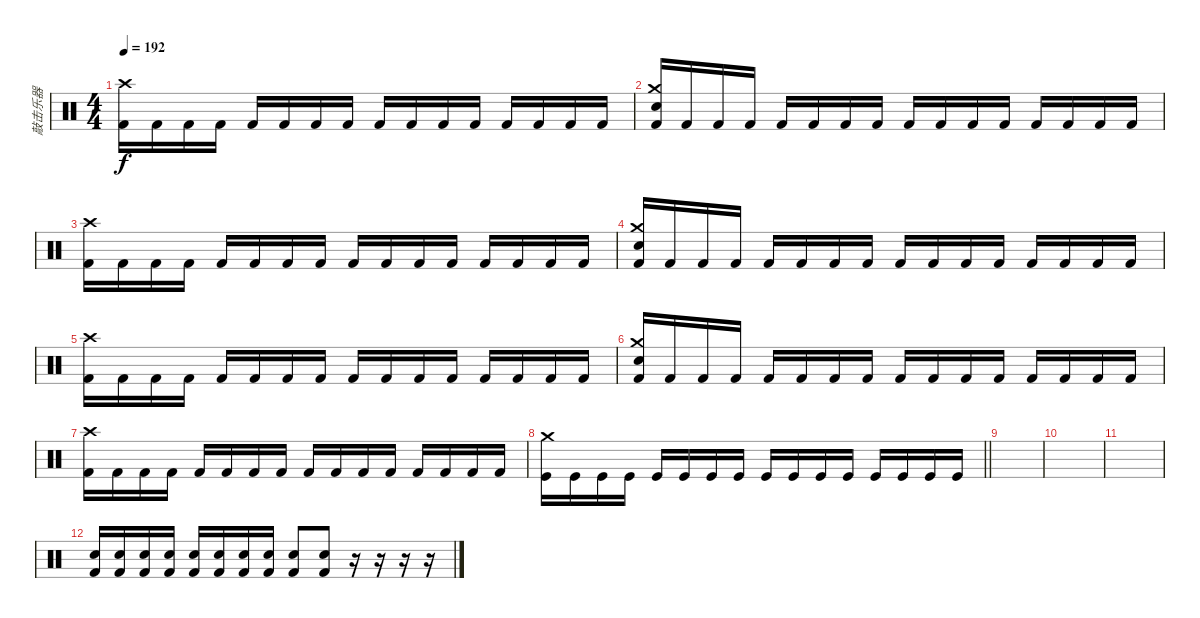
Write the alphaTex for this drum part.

\track ("敲击乐器" "敲击乐器") {instrument percussion}
\staff {score}
\articulation defaults
\ts (4 4)
\tempo 192
\clef neutral
\ks c
("Crash high (hit)" "Kick (hit) 2").16{dy f} "Kick (hit) 2".16 "Kick (hit) 2".16 "Kick (hit) 2".16 "Kick (hit) 2".16 "Kick (hit) 2".16 "Kick (hit) 2".16 "Kick (hit) 2".16 "Kick (hit) 2".16 "Kick (hit) 2".16 "Kick (hit) 2".16 "Kick (hit) 2".16 "Kick (hit) 2".16 "Kick (hit) 2".16 "Kick (hit) 2".16 "Kick (hit) 2".16 |
("Crash medium (hit)" "Electric Snare (hit)" "Kick (hit) 2").16 "Kick (hit) 2".16 "Kick (hit) 2".16 "Kick (hit) 2".16 "Kick (hit) 2".16 "Kick (hit) 2".16 "Kick (hit) 2".16 "Kick (hit) 2".16 "Kick (hit) 2".16 "Kick (hit) 2".16 "Kick (hit) 2".16 "Kick (hit) 2".16 "Kick (hit) 2".16 "Kick (hit) 2".16 "Kick (hit) 2".16 "Kick (hit) 2".16 |
("Crash high (hit)" "Kick (hit) 2").16 "Kick (hit) 2".16 "Kick (hit) 2".16 "Kick (hit) 2".16 "Kick (hit) 2".16 "Kick (hit) 2".16 "Kick (hit) 2".16 "Kick (hit) 2".16 "Kick (hit) 2".16 "Kick (hit) 2".16 "Kick (hit) 2".16 "Kick (hit) 2".16 "Kick (hit) 2".16 "Kick (hit) 2".16 "Kick (hit) 2".16 "Kick (hit) 2".16 |
("Crash medium (hit)" "Electric Snare (hit)" "Kick (hit) 2").16 "Kick (hit) 2".16 "Kick (hit) 2".16 "Kick (hit) 2".16 "Kick (hit) 2".16 "Kick (hit) 2".16 "Kick (hit) 2".16 "Kick (hit) 2".16 "Kick (hit) 2".16 "Kick (hit) 2".16 "Kick (hit) 2".16 "Kick (hit) 2".16 "Kick (hit) 2".16 "Kick (hit) 2".16 "Kick (hit) 2".16 "Kick (hit) 2".16 |
("Crash high (hit)" "Kick (hit) 2").16 "Kick (hit) 2".16 "Kick (hit) 2".16 "Kick (hit) 2".16 "Kick (hit) 2".16 "Kick (hit) 2".16 "Kick (hit) 2".16 "Kick (hit) 2".16 "Kick (hit) 2".16 "Kick (hit) 2".16 "Kick (hit) 2".16 "Kick (hit) 2".16 "Kick (hit) 2".16 "Kick (hit) 2".16 "Kick (hit) 2".16 "Kick (hit) 2".16 |
("Crash medium (hit)" "Electric Snare (hit)" "Kick (hit) 2").16 "Kick (hit) 2".16 "Kick (hit) 2".16 "Kick (hit) 2".16 "Kick (hit) 2".16 "Kick (hit) 2".16 "Kick (hit) 2".16 "Kick (hit) 2".16 "Kick (hit) 2".16 "Kick (hit) 2".16 "Kick (hit) 2".16 "Kick (hit) 2".16 "Kick (hit) 2".16 "Kick (hit) 2".16 "Kick (hit) 2".16 "Kick (hit) 2".16 |
("Crash high (hit)" "Kick (hit) 2").16 "Kick (hit) 2".16 "Kick (hit) 2".16 "Kick (hit) 2".16 "Kick (hit) 2".16 "Kick (hit) 2".16 "Kick (hit) 2".16 "Kick (hit) 2".16 "Kick (hit) 2".16 "Kick (hit) 2".16 "Kick (hit) 2".16 "Kick (hit) 2".16 "Kick (hit) 2".16 "Kick (hit) 2".16 "Kick (hit) 2".16 "Kick (hit) 2".16 |
\barLineRight lightlight
("Crash medium (hit)" "Kick (hit)").16 "Kick (hit)".16 "Kick (hit)".16 "Kick (hit)".16 "Kick (hit)".16 "Kick (hit)".16 "Kick (hit)".16 "Kick (hit)".16 "Kick (hit)".16 "Kick (hit)".16 "Kick (hit)".16 "Kick (hit)".16 "Kick (hit)".16 "Kick (hit)".16 "Kick (hit)".16 "Kick (hit)".16 |
|
|
|
("Kick (hit) 2" "Electric Snare (hit)").16 ("Kick (hit) 2" "Electric Snare (hit)").16 ("Kick (hit) 2" "Electric Snare (hit)").16 ("Kick (hit) 2" "Electric Snare (hit)").16 ("Kick (hit) 2" "Electric Snare (hit)").16 ("Kick (hit) 2" "Electric Snare (hit)").16 ("Kick (hit) 2" "Electric Snare (hit)").16 ("Kick (hit) 2" "Electric Snare (hit)").16 ("Kick (hit) 2" "Electric Snare (hit)").8 ("Kick (hit) 2" "Electric Snare (hit)").8 r.16 r.16 r.16 r.16
